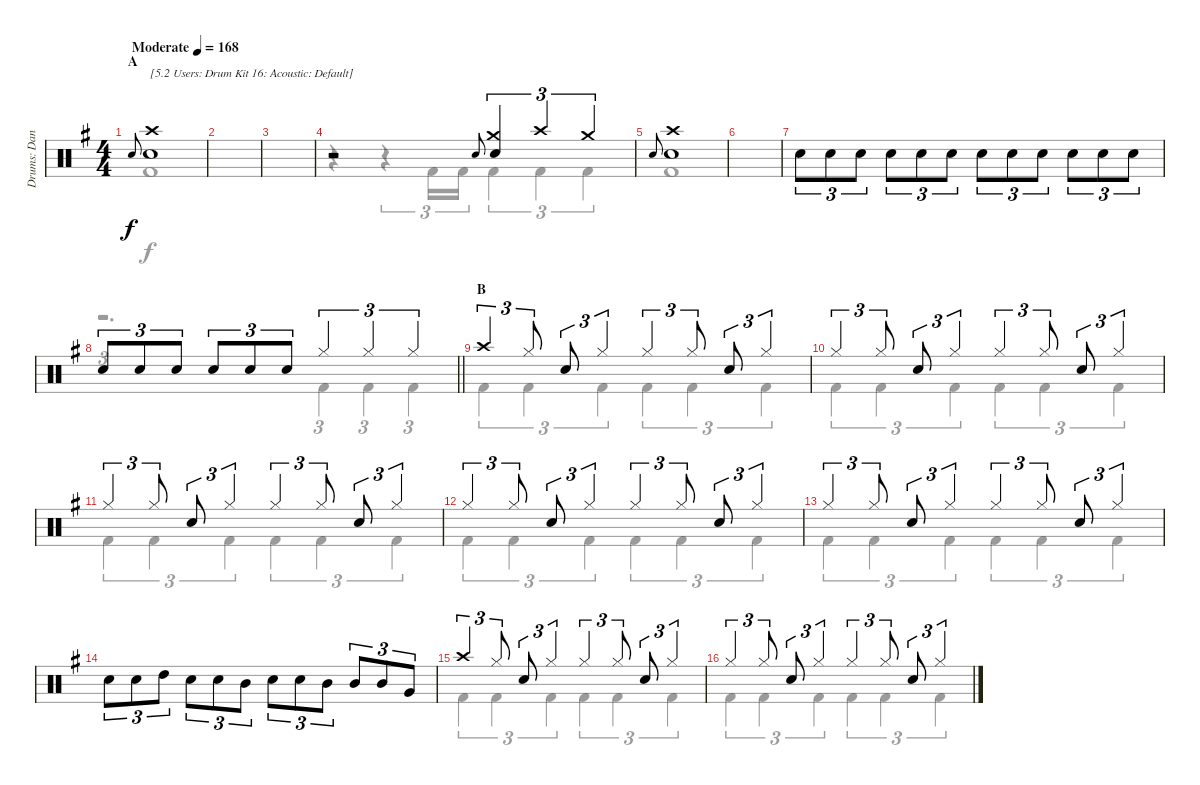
\track ("Drums: Dana" "Drums: Dan") {instrument percussion}
\staff {score}
\articulation defaults
\voice
\ts (4 4)
\section ("" "A")
\tempo (168 "Moderate")
\clef neutral
\ks g "Electric Snare (hit)".8{gr onbeat dy f}
("Crash high (hit)" "Snare (hit) 2").1{txt "[5.2 Users: Drum Kit 16: Acoustic: Default]"} |
|
|
r.2 "Electric Snare (hit)".8{gr onbeat} ("Crash medium (hit)" "Snare (hit) 2").4{tu (3 2)} "Crash high (hit)".4{tu (3 2)} "Crash medium (hit)".4{tu (3 2)} |
"Electric Snare (hit)".8{gr onbeat} ("Crash high (hit)" "Snare (hit) 2").1 |
|
"Snare (hit) 2".8{tu (3 2)} "Snare (hit) 2".8{tu (3 2)} "Snare (hit) 2".8{tu (3 2)} "Snare (hit) 2".8{tu (3 2)} "Snare (hit) 2".8{tu (3 2)} "Snare (hit) 2".8{tu (3 2)} "Snare (hit) 2".8{tu (3 2)} "Snare (hit) 2".8{tu (3 2)} "Snare (hit) 2".8{tu (3 2)} "Snare (hit) 2".8{tu (3 2)} "Snare (hit) 2".8{tu (3 2)} "Snare (hit) 2".8{tu (3 2)} |
\barLineRight lightlight "Snare (hit) 2".8{tu (3 2)} "Snare (hit) 2".8{tu (3 2)} "Snare (hit) 2".8{tu (3 2)} "Snare (hit) 2".8{tu (3 2)} "Snare (hit) 2".8{tu (3 2)} "Snare (hit) 2".8{tu (3 2)} "Hi-Hat (closed)".4{tu (3 2)} "Hi-Hat (closed)".4{tu (3 2)} "Hi-Hat (closed)".4{tu (3 2)}
|
\section ("" "B")
"Crash high (hit)".4{tu (3 2)} "Hi-Hat (closed)".8{tu (3 2)} "Snare (hit) 2".8{tu (3 2)} "Hi-Hat (closed)".4{tu (3 2)} "Hi-Hat (closed)".4{tu (3 2)} "Hi-Hat (closed)".8{tu (3 2)} "Snare (hit) 2".8{tu (3 2)} "Hi-Hat (closed)".4{tu (3 2)} |
"Hi-Hat (closed)".4{tu (3 2)} "Hi-Hat (closed)".8{tu (3 2)} "Snare (hit) 2".8{tu (3 2)} "Hi-Hat (closed)".4{tu (3 2)} "Hi-Hat (closed)".4{tu (3 2)} "Hi-Hat (closed)".8{tu (3 2)} "Snare (hit) 2".8{tu (3 2)} "Hi-Hat (closed)".4{tu (3 2)} |
"Hi-Hat (closed)".4{tu (3 2)} "Hi-Hat (closed)".8{tu (3 2)} "Snare (hit) 2".8{tu (3 2)} "Hi-Hat (closed)".4{tu (3 2)} "Hi-Hat (closed)".4{tu (3 2)} "Hi-Hat (closed)".8{tu (3 2)} "Snare (hit) 2".8{tu (3 2)} "Hi-Hat (closed)".4{tu (3 2)} |
"Hi-Hat (closed)".4{tu (3 2)} "Hi-Hat (closed)".8{tu (3 2)} "Snare (hit) 2".8{tu (3 2)} "Hi-Hat (closed)".4{tu (3 2)} "Hi-Hat (closed)".4{tu (3 2)} "Hi-Hat (closed)".8{tu (3 2)} "Snare (hit) 2".8{tu (3 2)} "Hi-Hat (closed)".4{tu (3 2)} |
"Hi-Hat (closed)".4{tu (3 2)} "Hi-Hat (closed)".8{tu (3 2)} "Snare (hit) 2".8{tu (3 2)} "Hi-Hat (closed)".4{tu (3 2)} "Hi-Hat (closed)".4{tu (3 2)} "Hi-Hat (closed)".8{tu (3 2)} "Snare (hit) 2".8{tu (3 2)} "Hi-Hat (closed)".4{tu (3 2)} |
"Snare (hit) 2".8{tu (3 2)} "Snare (hit) 2".8{tu (3 2)} "High Tom (hit)".8{tu (3 2)} "Snare (hit) 2".8{tu (3 2)} "Snare (hit) 2".8{tu (3 2)} "Mid Tom (hit)".8{tu (3 2)} "Snare (hit) 2".8{tu (3 2)} "Snare (hit) 2".8{tu (3 2)} "Mid Tom (hit)".8{tu (3 2)} "Mid Tom (hit)".8{tu (3 2)} "Mid Tom (hit)".8{tu (3 2)} "Very Low Tom (hit)".8{tu (3 2)} |
"Crash high (hit)".4{tu (3 2)} "Hi-Hat (closed)".8{tu (3 2)} "Snare (hit) 2".8{tu (3 2)} "Hi-Hat (closed)".4{tu (3 2)} "Hi-Hat (closed)".4{tu (3 2)} "Hi-Hat (closed)".8{tu (3 2)} "Snare (hit) 2".8{tu (3 2)} "Hi-Hat (closed)".4{tu (3 2)} |
"Hi-Hat (closed)".4{tu (3 2)} "Hi-Hat (closed)".8{tu (3 2)} "Snare (hit) 2".8{tu (3 2)} "Hi-Hat (closed)".4{tu (3 2)} "Hi-Hat (closed)".4{tu (3 2)} "Hi-Hat (closed)".8{tu (3 2)} "Snare (hit) 2".8{tu (3 2)} "Hi-Hat (closed)".4{tu (3 2)}
\voice
\clef neutral
\ottava regular
\simile none
\ks g "Kick (hit) 2".1{dy f}
|
|
|
r.4 r.4{tu (3 2)} "Kick (hit) 2".16{tu (3 2)} "Kick (hit) 2".16{tu (3 2)} "Kick (hit) 2".4{tu (3 2)} "Kick (hit) 2".4{tu (3 2)} "Kick (hit) 2".4{tu (3 2)} |
"Kick (hit) 2".1 |
|
|
\barLineRight lightlight
r.2{d tu (3 2)} "Kick (hit) 2".4{tu (3 2)} "Kick (hit) 2".4{tu (3 2)} "Kick (hit) 2".4{tu (3 2)} |
"Kick (hit) 2".4{tu (3 2)} "Kick (hit) 2".4{tu (3 2)} "Kick (hit) 2".4{tu (3 2)} "Kick (hit) 2".4{tu (3 2)} "Kick (hit) 2".4{tu (3 2)} "Kick (hit) 2".4{tu (3 2)} |
"Kick (hit) 2".4{tu (3 2)} "Kick (hit) 2".4{tu (3 2)} "Kick (hit) 2".4{tu (3 2)} "Kick (hit) 2".4{tu (3 2)} "Kick (hit) 2".4{tu (3 2)} "Kick (hit) 2".4{tu (3 2)} |
"Kick (hit) 2".4{tu (3 2)} "Kick (hit) 2".4{tu (3 2)} "Kick (hit) 2".4{tu (3 2)} "Kick (hit) 2".4{tu (3 2)} "Kick (hit) 2".4{tu (3 2)} "Kick (hit) 2".4{tu (3 2)} |
"Kick (hit) 2".4{tu (3 2)} "Kick (hit) 2".4{tu (3 2)} "Kick (hit) 2".4{tu (3 2)} "Kick (hit) 2".4{tu (3 2)} "Kick (hit) 2".4{tu (3 2)} "Kick (hit) 2".4{tu (3 2)} |
"Kick (hit) 2".4{tu (3 2)} "Kick (hit) 2".4{tu (3 2)} "Kick (hit) 2".4{tu (3 2)} "Kick (hit) 2".4{tu (3 2)} "Kick (hit) 2".4{tu (3 2)} "Kick (hit) 2".4{tu (3 2)} |
|
"Kick (hit) 2".4{tu (3 2)} "Kick (hit) 2".4{tu (3 2)} "Kick (hit) 2".4{tu (3 2)} "Kick (hit) 2".4{tu (3 2)} "Kick (hit) 2".4{tu (3 2)} "Kick (hit) 2".4{tu (3 2)} |
"Kick (hit) 2".4{tu (3 2)} "Kick (hit) 2".4{tu (3 2)} "Kick (hit) 2".4{tu (3 2)} "Kick (hit) 2".4{tu (3 2)} "Kick (hit) 2".4{tu (3 2)} "Kick (hit) 2".4{tu (3 2)}
